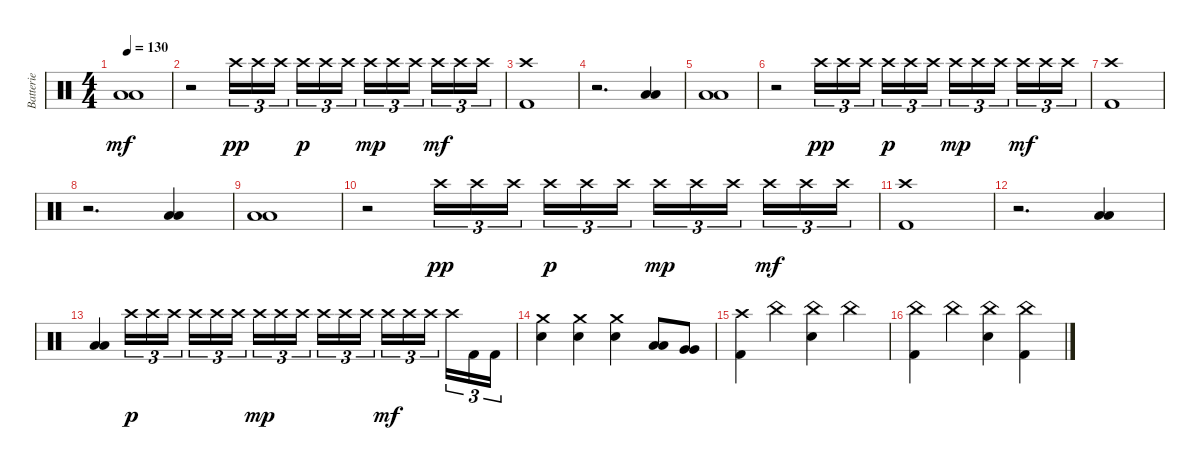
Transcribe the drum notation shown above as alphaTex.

\track ("Batterie" "Batterie") {instrument percussion}
\staff {score}
\articulation defaults
\ts (4 4)
\tempo 130
\clef neutral
\ks c
("Low Tom (hit)" "Low Floor Tom (hit)").1{dy mf} |
r.2 "Crash high (hit)".16{tu (3 2) dy pp} "Crash high (hit)".16{tu (3 2)} "Crash high (hit)".16{tu (3 2) beam splitsecondary} "Crash high (hit)".16{tu (3 2) dy p} "Crash high (hit)".16{tu (3 2)} "Crash high (hit)".16{tu (3 2)} "Crash high (hit)".16{tu (3 2) dy mp} "Crash high (hit)".16{tu (3 2)} "Crash high (hit)".16{tu (3 2) beam splitsecondary} "Crash high (hit)".16{tu (3 2) dy mf} "Crash high (hit)".16{tu (3 2)} "Crash high (hit)".16{tu (3 2)} |
("Crash high (hit)" "Kick (hit) 2").1 |
r.2{d} ("Low Tom (hit)" "Low Floor Tom (hit)").4 |
("Low Tom (hit)" "Low Floor Tom (hit)").1 |
r.2 "Crash high (hit)".16{tu (3 2) dy pp} "Crash high (hit)".16{tu (3 2)} "Crash high (hit)".16{tu (3 2) beam splitsecondary} "Crash high (hit)".16{tu (3 2) dy p} "Crash high (hit)".16{tu (3 2)} "Crash high (hit)".16{tu (3 2)} "Crash high (hit)".16{tu (3 2) dy mp} "Crash high (hit)".16{tu (3 2)} "Crash high (hit)".16{tu (3 2) beam splitsecondary} "Crash high (hit)".16{tu (3 2) dy mf} "Crash high (hit)".16{tu (3 2)} "Crash high (hit)".16{tu (3 2)} |
("Crash high (hit)" "Kick (hit) 2").1 |
r.2{d} ("Low Tom (hit)" "Low Floor Tom (hit)").4 |
("Low Tom (hit)" "Low Floor Tom (hit)").1 |
r.2 "Crash high (hit)".16{tu (3 2) dy pp} "Crash high (hit)".16{tu (3 2)} "Crash high (hit)".16{tu (3 2) beam splitsecondary} "Crash high (hit)".16{tu (3 2) dy p} "Crash high (hit)".16{tu (3 2)} "Crash high (hit)".16{tu (3 2)} "Crash high (hit)".16{tu (3 2) dy mp} "Crash high (hit)".16{tu (3 2)} "Crash high (hit)".16{tu (3 2) beam splitsecondary} "Crash high (hit)".16{tu (3 2) dy mf} "Crash high (hit)".16{tu (3 2)} "Crash high (hit)".16{tu (3 2)} |
("Crash high (hit)" "Kick (hit) 2").1 |
r.2{d} ("Low Tom (hit)" "Low Floor Tom (hit)").4 |
("Low Tom (hit)" "Low Floor Tom (hit)").4 "Crash high (hit)".16{tu (3 2) dy p} "Crash high (hit)".16{tu (3 2)} "Crash high (hit)".16{tu (3 2) beam splitsecondary} "Crash high (hit)".16{tu (3 2)} "Crash high (hit)".16{tu (3 2)} "Crash high (hit)".16{tu (3 2)} "Crash high (hit)".16{tu (3 2) dy mp} "Crash high (hit)".16{tu (3 2)} "Crash high (hit)".16{tu (3 2) beam splitsecondary} "Crash high (hit)".16{tu (3 2)} "Crash high (hit)".16{tu (3 2)} "Crash high (hit)".16{tu (3 2)} "Crash high (hit)".16{tu (3 2) dy mf} "Crash high (hit)".16{tu (3 2)} "Crash high (hit)".16{tu (3 2) beam splitsecondary} "Crash high (hit)".16{tu (3 2)} "Kick (hit) 2".16{tu (3 2)} "Kick (hit) 2".16{tu (3 2)} |
("Crash medium (hit)" "Electric Snare (hit)").4 ("Crash medium (hit)" "Electric Snare (hit)").4 ("Crash medium (hit)" "Electric Snare (hit)").4 ("Low Tom (hit)" "Low Tom (hit)").8{bd 60} ("Very Low Tom (hit)" "Very Low Tom (hit)").8{bd 60} |
("Crash high (hit)" "Kick (hit) 2").4 "China (hit)".4 ("China (hit)" "Electric Snare (hit)").4 "China (hit)".4 |
("China (hit)" "Kick (hit) 2").4 "China (hit)".4 ("China (hit)" "Electric Snare (hit)").4 ("China (hit)" "Kick (hit) 2").4
